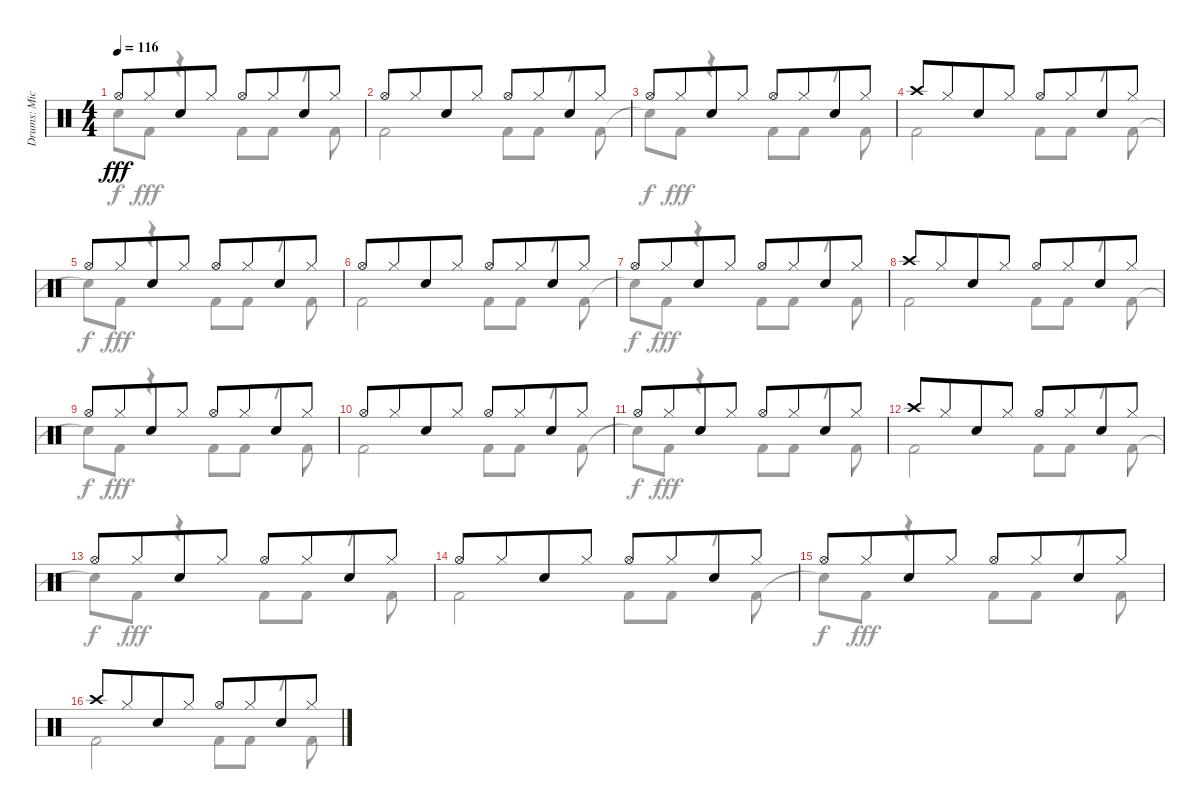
\track ("Drums: Mick" "Drums: Mic") {instrument percussion}
\staff {score}
\articulation defaults
\voice
\ts (4 4)
\tempo 116
\clef neutral
\ks c "Hi-Hat (open)".8{dy fff} "Hi-Hat (closed)".8{beam merge} "Snare (hit) 2".8 "Hi-Hat (closed)".8 "Hi-Hat (open)".8 "Hi-Hat (closed)".8{beam merge} "Snare (hit) 2".8 "Hi-Hat (closed)".8
|
"Hi-Hat (open)".8 "Hi-Hat (closed)".8{beam merge} "Snare (hit) 2".8 "Hi-Hat (closed)".8 "Hi-Hat (open)".8 "Hi-Hat (closed)".8{beam merge} "Snare (hit) 2".8 "Hi-Hat (closed)".8 |
"Hi-Hat (open)".8 "Hi-Hat (closed)".8{beam merge} "Snare (hit) 2".8 "Hi-Hat (closed)".8 "Hi-Hat (open)".8 "Hi-Hat (closed)".8{beam merge} "Snare (hit) 2".8 "Hi-Hat (closed)".8 |
"Crash high (hit)".8 "Hi-Hat (closed)".8{beam merge} "Snare (hit) 2".8 "Hi-Hat (closed)".8 "Hi-Hat (open)".8 "Hi-Hat (closed)".8{beam merge} "Snare (hit) 2".8 "Hi-Hat (closed)".8 |
"Hi-Hat (open)".8 "Hi-Hat (closed)".8{beam merge} "Snare (hit) 2".8 "Hi-Hat (closed)".8 "Hi-Hat (open)".8 "Hi-Hat (closed)".8{beam merge} "Snare (hit) 2".8 "Hi-Hat (closed)".8 |
"Hi-Hat (open)".8 "Hi-Hat (closed)".8{beam merge} "Snare (hit) 2".8 "Hi-Hat (closed)".8 "Hi-Hat (open)".8 "Hi-Hat (closed)".8{beam merge} "Snare (hit) 2".8 "Hi-Hat (closed)".8 |
"Hi-Hat (open)".8 "Hi-Hat (closed)".8{beam merge} "Snare (hit) 2".8 "Hi-Hat (closed)".8 "Hi-Hat (open)".8 "Hi-Hat (closed)".8{beam merge} "Snare (hit) 2".8 "Hi-Hat (closed)".8 |
"Crash high (hit)".8 "Hi-Hat (closed)".8{beam merge} "Snare (hit) 2".8 "Hi-Hat (closed)".8 "Hi-Hat (open)".8 "Hi-Hat (closed)".8{beam merge} "Snare (hit) 2".8 "Hi-Hat (closed)".8 |
"Hi-Hat (open)".8 "Hi-Hat (closed)".8{beam merge} "Snare (hit) 2".8 "Hi-Hat (closed)".8 "Hi-Hat (open)".8 "Hi-Hat (closed)".8{beam merge} "Snare (hit) 2".8 "Hi-Hat (closed)".8 |
"Hi-Hat (open)".8 "Hi-Hat (closed)".8{beam merge} "Snare (hit) 2".8 "Hi-Hat (closed)".8 "Hi-Hat (open)".8 "Hi-Hat (closed)".8{beam merge} "Snare (hit) 2".8 "Hi-Hat (closed)".8 |
"Hi-Hat (open)".8 "Hi-Hat (closed)".8{beam merge} "Snare (hit) 2".8 "Hi-Hat (closed)".8 "Hi-Hat (open)".8 "Hi-Hat (closed)".8{beam merge} "Snare (hit) 2".8 "Hi-Hat (closed)".8 |
"Crash high (hit)".8 "Hi-Hat (closed)".8{beam merge} "Snare (hit) 2".8 "Hi-Hat (closed)".8 "Hi-Hat (open)".8 "Hi-Hat (closed)".8{beam merge} "Snare (hit) 2".8 "Hi-Hat (closed)".8 |
"Hi-Hat (open)".8 "Hi-Hat (closed)".8{beam merge} "Snare (hit) 2".8 "Hi-Hat (closed)".8 "Hi-Hat (open)".8 "Hi-Hat (closed)".8{beam merge} "Snare (hit) 2".8 "Hi-Hat (closed)".8 |
"Hi-Hat (open)".8 "Hi-Hat (closed)".8{beam merge} "Snare (hit) 2".8 "Hi-Hat (closed)".8 "Hi-Hat (open)".8 "Hi-Hat (closed)".8{beam merge} "Snare (hit) 2".8 "Hi-Hat (closed)".8 |
"Hi-Hat (open)".8 "Hi-Hat (closed)".8{beam merge} "Snare (hit) 2".8 "Hi-Hat (closed)".8 "Hi-Hat (open)".8 "Hi-Hat (closed)".8{beam merge} "Snare (hit) 2".8 "Hi-Hat (closed)".8 |
"Crash high (hit)".8 "Hi-Hat (closed)".8{beam merge} "Snare (hit) 2".8 "Hi-Hat (closed)".8 "Hi-Hat (open)".8 "Hi-Hat (closed)".8{beam merge} "Snare (hit) 2".8 "Hi-Hat (closed)".8
\voice
\clef neutral
\ottava regular
\simile none
\ks c "Snare (hit)"{t}.8{dy f} "Kick (hit) 2".8{dy fff}
r.4 "Kick (hit) 2".8 "Kick (hit) 2".8 r.8 "Kick (hit) 2".8 |
"Kick (hit) 2".2 "Kick (hit) 2".8 "Kick (hit) 2".8 r.8 "Kick (hit) 2".8 |
"Snare (hit)"{t}.8{dy f} "Kick (hit) 2".8{dy fff} r.4 "Kick (hit) 2".8 "Kick (hit) 2".8 r.8 "Kick (hit) 2".8 |
"Kick (hit) 2".2 "Kick (hit) 2".8 "Kick (hit) 2".8 r.8 "Kick (hit) 2".8 |
"Snare (hit)"{t}.8{dy f} "Kick (hit) 2".8{dy fff} r.4 "Kick (hit) 2".8 "Kick (hit) 2".8 r.8 "Kick (hit) 2".8 |
"Kick (hit) 2".2 "Kick (hit) 2".8 "Kick (hit) 2".8 r.8 "Kick (hit) 2".8 |
"Snare (hit)"{t}.8{dy f} "Kick (hit) 2".8{dy fff} r.4 "Kick (hit) 2".8 "Kick (hit) 2".8 r.8 "Kick (hit) 2".8 |
"Kick (hit) 2".2 "Kick (hit) 2".8 "Kick (hit) 2".8 r.8 "Kick (hit) 2".8 |
"Snare (hit)"{t}.8{dy f} "Kick (hit) 2".8{dy fff} r.4 "Kick (hit) 2".8 "Kick (hit) 2".8 r.8 "Kick (hit) 2".8 |
"Kick (hit) 2".2 "Kick (hit) 2".8 "Kick (hit) 2".8 r.8 "Kick (hit) 2".8 |
"Snare (hit)"{t}.8{dy f} "Kick (hit) 2".8{dy fff} r.4 "Kick (hit) 2".8 "Kick (hit) 2".8 r.8 "Kick (hit) 2".8 |
"Kick (hit) 2".2 "Kick (hit) 2".8 "Kick (hit) 2".8 r.8 "Kick (hit) 2".8 |
"Snare (hit)"{t}.8{dy f} "Kick (hit) 2".8{dy fff} r.4 "Kick (hit) 2".8 "Kick (hit) 2".8 r.8 "Kick (hit) 2".8 |
"Kick (hit) 2".2 "Kick (hit) 2".8 "Kick (hit) 2".8 r.8 "Kick (hit) 2".8 |
"Snare (hit)"{t}.8{dy f} "Kick (hit) 2".8{dy fff} r.4 "Kick (hit) 2".8 "Kick (hit) 2".8 r.8 "Kick (hit) 2".8 |
"Kick (hit) 2".2 "Kick (hit) 2".8 "Kick (hit) 2".8 r.8 "Kick (hit) 2".8
